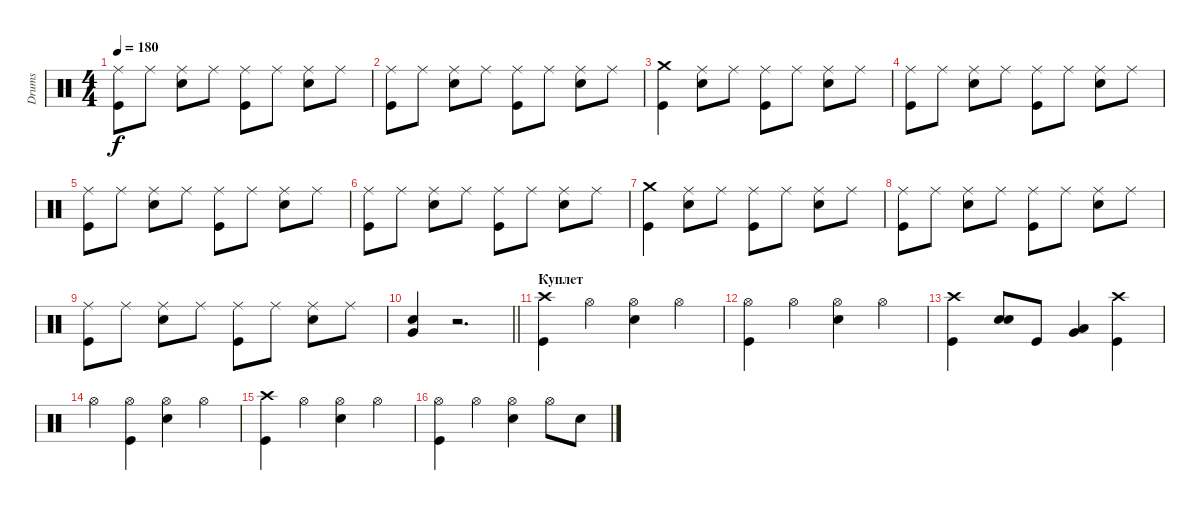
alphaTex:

\track ("Drums" "Drums") {instrument percussion}
\staff {score}
\articulation defaults
\ts (4 4)
\tempo 180
\clef neutral
\ks c
("Kick (hit)" "Ride (middle)").8{dy f} "Ride (middle)".8 ("Snare (hit) 2" "Ride (middle)").8 "Ride (middle)".8 ("Kick (hit)" "Ride (middle)").8 "Ride (middle)".8 ("Snare (hit) 2" "Ride (middle)").8 "Ride (middle)".8 |
("Kick (hit)" "Ride (middle)").8 "Ride (middle)".8 ("Snare (hit) 2" "Ride (middle)").8 "Ride (middle)".8 ("Kick (hit)" "Ride (middle)").8 "Ride (middle)".8 ("Snare (hit) 2" "Ride (middle)").8 "Ride (middle)".8 |
("Kick (hit)" "Crash medium (hit)").4 ("Snare (hit) 2" "Ride (middle)").8 "Ride (middle)".8 ("Kick (hit)" "Ride (middle)").8 "Ride (middle)".8 ("Snare (hit) 2" "Ride (middle)").8 "Ride (middle)".8 |
("Kick (hit)" "Ride (middle)").8 "Ride (middle)".8 ("Snare (hit) 2" "Ride (middle)").8 "Ride (middle)".8 ("Kick (hit)" "Ride (middle)").8 "Ride (middle)".8 ("Snare (hit) 2" "Ride (middle)").8 "Ride (middle)".8 |
("Kick (hit)" "Ride (middle)").8 "Ride (middle)".8 ("Snare (hit) 2" "Ride (middle)").8 "Ride (middle)".8 ("Kick (hit)" "Ride (middle)").8 "Ride (middle)".8 ("Snare (hit) 2" "Ride (middle)").8 "Ride (middle)".8 |
("Kick (hit)" "Ride (middle)").8 "Ride (middle)".8 ("Snare (hit) 2" "Ride (middle)").8 "Ride (middle)".8 ("Kick (hit)" "Ride (middle)").8 "Ride (middle)".8 ("Snare (hit) 2" "Ride (middle)").8 "Ride (middle)".8 |
("Kick (hit)" "Crash medium (hit)").4 ("Snare (hit) 2" "Ride (middle)").8 "Ride (middle)".8 ("Kick (hit)" "Ride (middle)").8 "Ride (middle)".8 ("Snare (hit) 2" "Ride (middle)").8 "Ride (middle)".8 |
("Kick (hit)" "Ride (middle)").8 "Ride (middle)".8 ("Snare (hit) 2" "Ride (middle)").8 "Ride (middle)".8 ("Kick (hit)" "Ride (middle)").8 "Ride (middle)".8 ("Snare (hit) 2" "Ride (middle)").8 "Ride (middle)".8 |
("Kick (hit)" "Ride (middle)").8 "Ride (middle)".8 ("Snare (hit) 2" "Ride (middle)").8 "Ride (middle)".8 ("Kick (hit)" "Ride (middle)").8 "Ride (middle)".8 ("Snare (hit) 2" "Ride (middle)").8 "Ride (middle)".8 |
\barLineRight lightlight
("Snare (hit) 2" "Very Low Tom (hit)").4 r.2{d} |
\section ("" "Куплет")
("Kick (hit)" "Crash high (hit)").4 "Hi-Hat (open)".4 ("Snare (hit) 2" "Hi-Hat (open)").4 "Hi-Hat (open)".4 |
("Kick (hit)" "Hi-Hat (open)").4 "Hi-Hat (open)".4 ("Snare (hit) 2" "Hi-Hat (open)").4 "Hi-Hat (open)".4 |
("Kick (hit)" "Crash high (hit)").4 ("Snare (hit) 2" "Snare (hit) 2").8{bd 60} "Kick (hit)".8 ("Low Tom (hit)" "Very Low Tom (hit)").4{bd 60} ("Kick (hit)" "Crash high (hit)").4 |
"Hi-Hat (open)".4 ("Kick (hit)" "Hi-Hat (open)").4 ("Snare (hit) 2" "Hi-Hat (open)").4 "Hi-Hat (open)".4 |
("Kick (hit)" "Crash high (hit)").4 "Hi-Hat (open)".4 ("Snare (hit) 2" "Hi-Hat (open)").4 "Hi-Hat (open)".4 |
("Kick (hit)" "Hi-Hat (open)").4 "Hi-Hat (open)".4 ("Snare (hit) 2" "Hi-Hat (open)").4 "Hi-Hat (open)".8 "Snare (hit) 2".8
